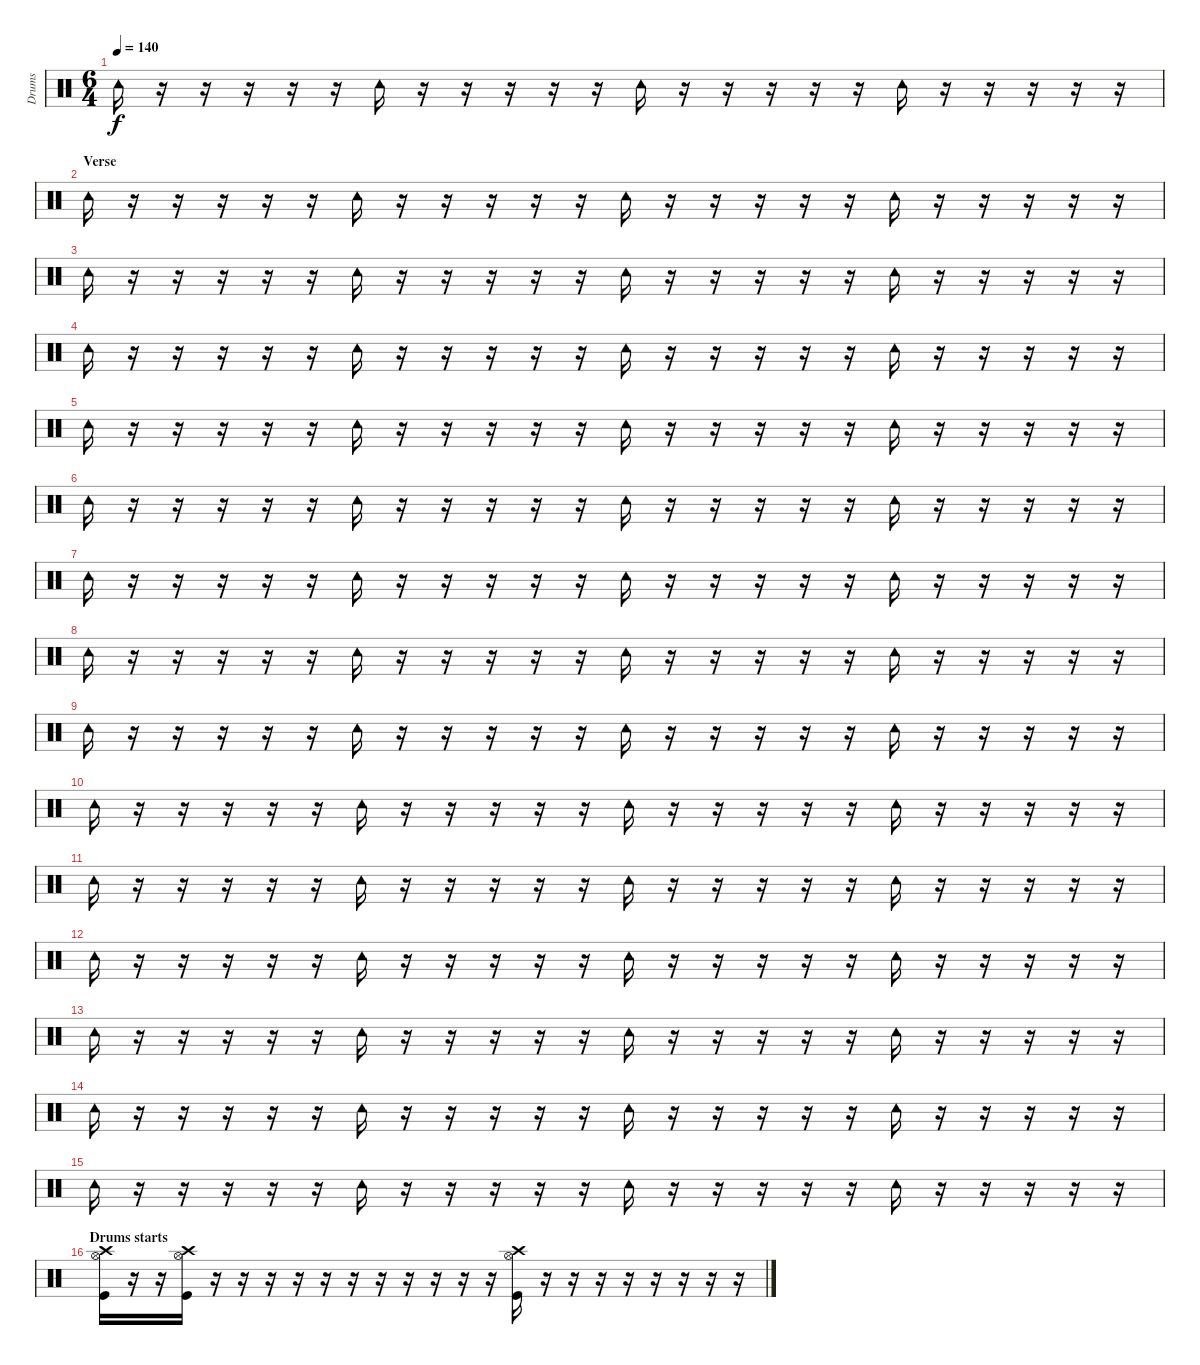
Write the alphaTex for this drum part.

\track ("Drums" "Drums") {instrument percussion}
\staff {score}
\articulation defaults
\ts (6 4)
\tempo 140
\clef neutral
\ks c "Tambourine (hit)".16{dy f}
r.16 r.16 r.16 r.16 r.16 "Tambourine (hit)".16 r.16 r.16 r.16 r.16 r.16 "Tambourine (hit)".16 r.16 r.16 r.16 r.16 r.16 "Tambourine (hit)".16 r.16 r.16 r.16 r.16 r.16 |
\section ("" "Verse")
"Tambourine (hit)".16 r.16 r.16 r.16 r.16 r.16 "Tambourine (hit)".16 r.16 r.16 r.16 r.16 r.16 "Tambourine (hit)".16 r.16 r.16 r.16 r.16 r.16 "Tambourine (hit)".16 r.16 r.16 r.16 r.16 r.16 |
"Tambourine (hit)".16 r.16 r.16 r.16 r.16 r.16 "Tambourine (hit)".16 r.16 r.16 r.16 r.16 r.16 "Tambourine (hit)".16 r.16 r.16 r.16 r.16 r.16 "Tambourine (hit)".16 r.16 r.16 r.16 r.16 r.16 |
"Tambourine (hit)".16 r.16 r.16 r.16 r.16 r.16 "Tambourine (hit)".16 r.16 r.16 r.16 r.16 r.16 "Tambourine (hit)".16 r.16 r.16 r.16 r.16 r.16 "Tambourine (hit)".16 r.16 r.16 r.16 r.16 r.16 |
"Tambourine (hit)".16 r.16 r.16 r.16 r.16 r.16 "Tambourine (hit)".16 r.16 r.16 r.16 r.16 r.16 "Tambourine (hit)".16 r.16 r.16 r.16 r.16 r.16 "Tambourine (hit)".16 r.16 r.16 r.16 r.16 r.16 |
"Tambourine (hit)".16 r.16 r.16 r.16 r.16 r.16 "Tambourine (hit)".16 r.16 r.16 r.16 r.16 r.16 "Tambourine (hit)".16 r.16 r.16 r.16 r.16 r.16 "Tambourine (hit)".16 r.16 r.16 r.16 r.16 r.16 |
"Tambourine (hit)".16 r.16 r.16 r.16 r.16 r.16 "Tambourine (hit)".16 r.16 r.16 r.16 r.16 r.16 "Tambourine (hit)".16 r.16 r.16 r.16 r.16 r.16 "Tambourine (hit)".16 r.16 r.16 r.16 r.16 r.16 |
"Tambourine (hit)".16 r.16 r.16 r.16 r.16 r.16 "Tambourine (hit)".16 r.16 r.16 r.16 r.16 r.16 "Tambourine (hit)".16 r.16 r.16 r.16 r.16 r.16 "Tambourine (hit)".16 r.16 r.16 r.16 r.16 r.16 |
"Tambourine (hit)".16 r.16 r.16 r.16 r.16 r.16 "Tambourine (hit)".16 r.16 r.16 r.16 r.16 r.16 "Tambourine (hit)".16 r.16 r.16 r.16 r.16 r.16 "Tambourine (hit)".16 r.16 r.16 r.16 r.16 r.16 |
"Tambourine (hit)".16 r.16 r.16 r.16 r.16 r.16 "Tambourine (hit)".16 r.16 r.16 r.16 r.16 r.16 "Tambourine (hit)".16 r.16 r.16 r.16 r.16 r.16 "Tambourine (hit)".16 r.16 r.16 r.16 r.16 r.16 |
"Tambourine (hit)".16 r.16 r.16 r.16 r.16 r.16 "Tambourine (hit)".16 r.16 r.16 r.16 r.16 r.16 "Tambourine (hit)".16 r.16 r.16 r.16 r.16 r.16 "Tambourine (hit)".16 r.16 r.16 r.16 r.16 r.16 |
"Tambourine (hit)".16 r.16 r.16 r.16 r.16 r.16 "Tambourine (hit)".16 r.16 r.16 r.16 r.16 r.16 "Tambourine (hit)".16 r.16 r.16 r.16 r.16 r.16 "Tambourine (hit)".16 r.16 r.16 r.16 r.16 r.16 |
"Tambourine (hit)".16 r.16 r.16 r.16 r.16 r.16 "Tambourine (hit)".16 r.16 r.16 r.16 r.16 r.16 "Tambourine (hit)".16 r.16 r.16 r.16 r.16 r.16 "Tambourine (hit)".16 r.16 r.16 r.16 r.16 r.16 |
"Tambourine (hit)".16 r.16 r.16 r.16 r.16 r.16 "Tambourine (hit)".16 r.16 r.16 r.16 r.16 r.16 "Tambourine (hit)".16 r.16 r.16 r.16 r.16 r.16 "Tambourine (hit)".16 r.16 r.16 r.16 r.16 r.16 |
"Tambourine (hit)".16 r.16 r.16 r.16 r.16 r.16 "Tambourine (hit)".16 r.16 r.16 r.16 r.16 r.16 "Tambourine (hit)".16 r.16 r.16 r.16 r.16 r.16 "Tambourine (hit)".16 r.16 r.16 r.16 r.16 r.16 |
\section ("" "Drums starts")
("Hi-Hat (open)" "Crash high (hit)" "Kick (hit)").16 r.16 r.16 ("Hi-Hat (open)" "Crash high (hit)" "Kick (hit)").16 r.16 r.16 r.16 r.16 r.16 r.16 r.16 r.16 r.16 r.16 r.16 ("Crash high (hit)" "Hi-Hat (open)" "Kick (hit)").16 r.16 r.16 r.16 r.16 r.16 r.16 r.16 r.16
